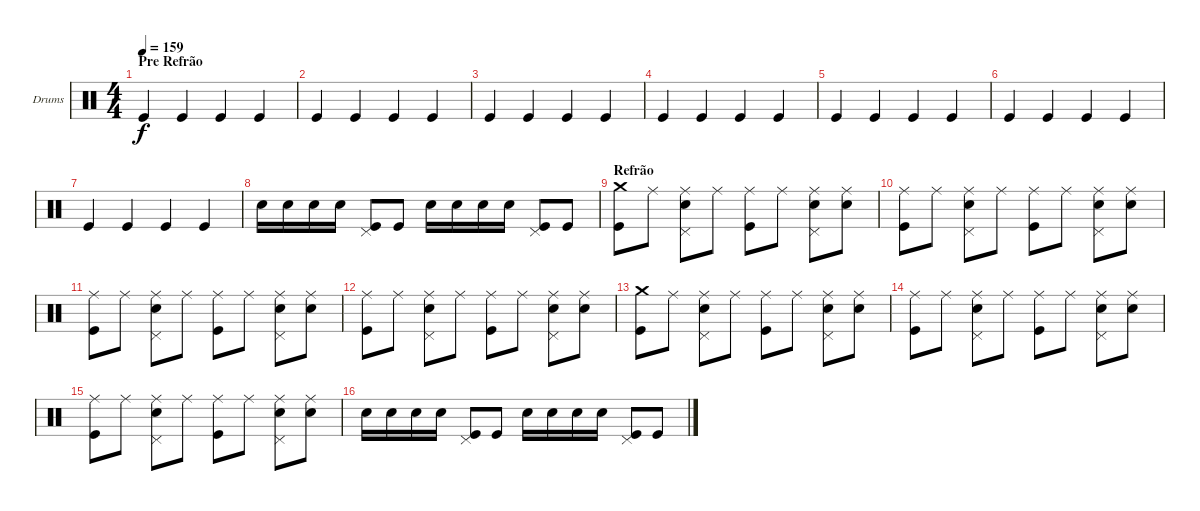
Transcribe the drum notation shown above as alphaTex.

\bracketExtendMode groupsimilarinstruments
\firstSystemTrackNameOrientation horizontal
\otherSystemsTrackNameOrientation horizontal
\track ("Drumkit" "Drums") {instrument percussion}
\staff {score}
\articulation defaults
\ts (4 4)
\section ("" "Pre Refrão")
\tempo 159
\clef neutral
\scale
0.333333
\ks c "Kick (hit)".4{dy f} "Kick (hit)".4 "Kick (hit)".4 "Kick (hit)".4
|
\scale
0.333333 "Kick (hit)".4 "Kick (hit)".4 "Kick (hit)".4 "Kick (hit)".4 |
\scale
0.333333 "Kick (hit)".4 "Kick (hit)".4 "Kick (hit)".4 "Kick (hit)".4 |
\scale
0.333333 "Kick (hit)".4 "Kick (hit)".4 "Kick (hit)".4 "Kick (hit)".4 |
\scale
0.333333 "Kick (hit)".4 "Kick (hit)".4 "Kick (hit)".4 "Kick (hit)".4 |
\scale
0.333333 "Kick (hit)".4 "Kick (hit)".4 "Kick (hit)".4 "Kick (hit)".4 |
\scale
0.333333 "Kick (hit)".4 "Kick (hit)".4 "Kick (hit)".4 "Kick (hit)".4 |
\scale
0.333333 "Snare (hit) 2".16 "Snare (hit) 2".16 "Snare (hit) 2".16 "Snare (hit) 2".16 ("Kick (hit)" "Pedal Hi-Hat (hit)").8 "Kick (hit)".8 "Snare (hit) 2".16 "Snare (hit) 2".16 "Snare (hit) 2".16 "Snare (hit) 2".16 ("Kick (hit)" "Pedal Hi-Hat (hit)").8 "Kick (hit)".8 |
\section ("" "Refrão")
\scale
0.333333 ("Kick (hit)" "Crash medium (hit)").8 "Ride (middle)".8 ("Ride (middle)" "Snare (hit) 2" "Pedal Hi-Hat (hit)").8 "Ride (middle)".8 ("Ride (middle)" "Kick (hit)").8 "Ride (middle)".8 ("Ride (middle)" "Snare (hit) 2" "Pedal Hi-Hat (hit)").8 ("Ride (middle)" "Snare (hit) 2").8 |
\scale
0.333333 ("Ride (middle)" "Kick (hit)").8 "Ride (middle)".8 ("Ride (middle)" "Snare (hit) 2" "Pedal Hi-Hat (hit)").8 "Ride (middle)".8 ("Ride (middle)" "Kick (hit)").8 "Ride (middle)".8 ("Ride (middle)" "Snare (hit) 2" "Pedal Hi-Hat (hit)").8 ("Ride (middle)" "Snare (hit) 2").8 |
\scale
0.333333 ("Ride (middle)" "Kick (hit)").8 "Ride (middle)".8 ("Ride (middle)" "Snare (hit) 2" "Pedal Hi-Hat (hit)").8 "Ride (middle)".8 ("Ride (middle)" "Kick (hit)").8 "Ride (middle)".8 ("Ride (middle)" "Snare (hit) 2" "Pedal Hi-Hat (hit)").8 ("Ride (middle)" "Snare (hit) 2").8 |
\scale
0.333333 ("Ride (middle)" "Kick (hit)").8 "Ride (middle)".8 ("Ride (middle)" "Snare (hit) 2" "Pedal Hi-Hat (hit)").8 "Ride (middle)".8 ("Ride (middle)" "Kick (hit)").8 "Ride (middle)".8 ("Ride (middle)" "Snare (hit) 2" "Pedal Hi-Hat (hit)").8 ("Ride (middle)" "Snare (hit) 2").8 |
\scale
0.333333 ("Kick (hit)" "Crash medium (hit)").8 "Ride (middle)".8 ("Ride (middle)" "Snare (hit) 2" "Pedal Hi-Hat (hit)").8 "Ride (middle)".8 ("Ride (middle)" "Kick (hit)").8 "Ride (middle)".8 ("Ride (middle)" "Snare (hit) 2" "Pedal Hi-Hat (hit)").8 ("Ride (middle)" "Snare (hit) 2").8 |
\scale
0.333333 ("Ride (middle)" "Kick (hit)").8 "Ride (middle)".8 ("Ride (middle)" "Snare (hit) 2" "Pedal Hi-Hat (hit)").8 "Ride (middle)".8 ("Ride (middle)" "Kick (hit)").8 "Ride (middle)".8 ("Ride (middle)" "Snare (hit) 2" "Pedal Hi-Hat (hit)").8 ("Ride (middle)" "Snare (hit) 2").8 |
\scale
0.333333 ("Ride (middle)" "Kick (hit)").8 "Ride (middle)".8 ("Ride (middle)" "Snare (hit) 2" "Pedal Hi-Hat (hit)").8 "Ride (middle)".8 ("Ride (middle)" "Kick (hit)").8 "Ride (middle)".8 ("Ride (middle)" "Snare (hit) 2" "Pedal Hi-Hat (hit)").8 ("Ride (middle)" "Snare (hit) 2").8 |
\scale
0.333333 "Snare (hit) 2".16 "Snare (hit) 2".16 "Snare (hit) 2".16 "Snare (hit) 2".16 ("Kick (hit)" "Pedal Hi-Hat (hit)").8 "Kick (hit)".8 "Snare (hit) 2".16 "Snare (hit) 2".16 "Snare (hit) 2".16 "Snare (hit) 2".16 ("Kick (hit)" "Pedal Hi-Hat (hit)").8 "Kick (hit)".8
